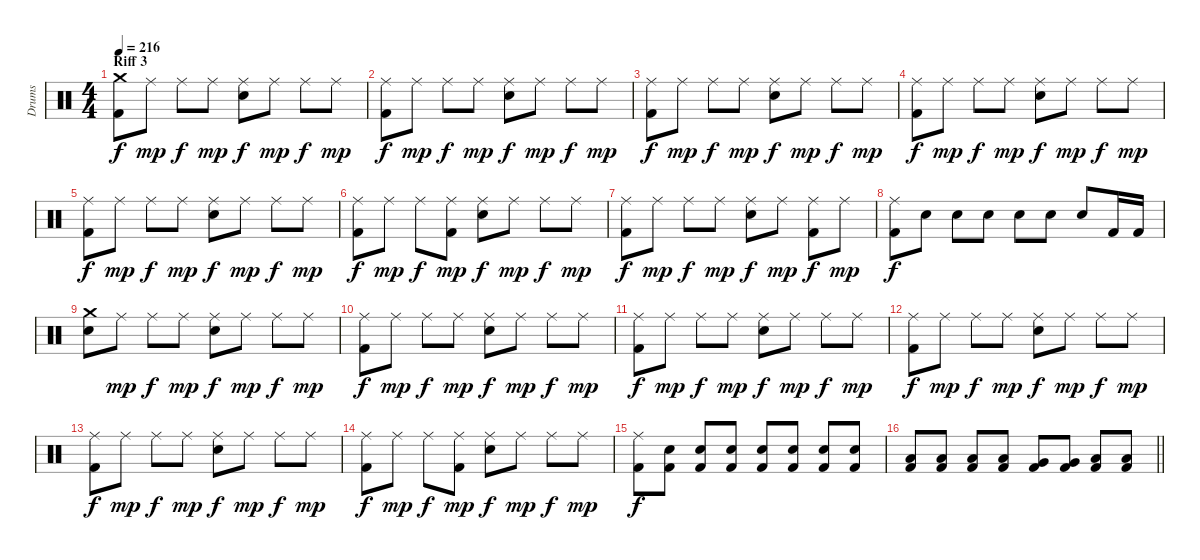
\track ("Drums" "Drums") {instrument percussion}
\staff {score}
\articulation defaults
\ts (4 4)
\section ("" "Riff 3")
\tempo 216
\clef neutral
\ks c
("Kick (hit) 2" "Crash medium (hit)").8{dy f} "Ride (middle)".8{dy mp} "Ride (middle)".8{dy f} "Ride (middle)".8{dy mp} ("Ride (middle)" "Electric Snare (hit)").8{dy f} "Ride (middle)".8{dy mp} "Ride (middle)".8{dy f} "Ride (middle)".8{dy mp} |
("Kick (hit) 2" "Ride (middle)").8{dy f} "Ride (middle)".8{dy mp} "Ride (middle)".8{dy f} "Ride (middle)".8{dy mp} ("Ride (middle)" "Electric Snare (hit)").8{dy f} "Ride (middle)".8{dy mp} "Ride (middle)".8{dy f} "Ride (middle)".8{dy mp} |
("Kick (hit) 2" "Ride (middle)").8{dy f} "Ride (middle)".8{dy mp} "Ride (middle)".8{dy f} "Ride (middle)".8{dy mp} ("Ride (middle)" "Electric Snare (hit)").8{dy f} "Ride (middle)".8{dy mp} "Ride (middle)".8{dy f} "Ride (middle)".8{dy mp} |
("Kick (hit) 2" "Ride (middle)").8{dy f} "Ride (middle)".8{dy mp} "Ride (middle)".8{dy f} "Ride (middle)".8{dy mp} ("Ride (middle)" "Electric Snare (hit)").8{dy f} "Ride (middle)".8{dy mp} "Ride (middle)".8{dy f} "Ride (middle)".8{dy mp} |
("Kick (hit) 2" "Ride (middle)").8{dy f} "Ride (middle)".8{dy mp} "Ride (middle)".8{dy f} "Ride (middle)".8{dy mp} ("Ride (middle)" "Electric Snare (hit)").8{dy f} "Ride (middle)".8{dy mp} "Ride (middle)".8{dy f} "Ride (middle)".8{dy mp} |
("Kick (hit) 2" "Ride (middle)").8{dy f} "Ride (middle)".8{dy mp} "Ride (middle)".8{dy f} ("Ride (middle)" "Kick (hit) 2").8{dy mp} ("Ride (middle)" "Electric Snare (hit)").8{dy f} "Ride (middle)".8{dy mp} "Ride (middle)".8{dy f} "Ride (middle)".8{dy mp} |
("Kick (hit) 2" "Ride (middle)").8{dy f} "Ride (middle)".8{dy mp} "Ride (middle)".8{dy f} "Ride (middle)".8{dy mp} ("Ride (middle)" "Electric Snare (hit)").8{dy f} "Ride (middle)".8{dy mp} ("Ride (middle)" "Kick (hit) 2").8{dy f} "Ride (middle)".8{dy mp} |
("Ride (middle)" "Kick (hit) 2").8{dy f} "Electric Snare (hit)".8 "Electric Snare (hit)".8 "Electric Snare (hit)".8 "Electric Snare (hit)".8 "Electric Snare (hit)".8 "Electric Snare (hit)".8 "Kick (hit) 2".16 "Kick (hit) 2".16 |
("Electric Snare (hit)" "Crash medium (hit)").8 "Ride (middle)".8{dy mp} "Ride (middle)".8{dy f} "Ride (middle)".8{dy mp} ("Ride (middle)" "Electric Snare (hit)").8{dy f} "Ride (middle)".8{dy mp} "Ride (middle)".8{dy f} "Ride (middle)".8{dy mp} |
("Kick (hit) 2" "Ride (middle)").8{dy f} "Ride (middle)".8{dy mp} "Ride (middle)".8{dy f} "Ride (middle)".8{dy mp} ("Ride (middle)" "Electric Snare (hit)").8{dy f} "Ride (middle)".8{dy mp} "Ride (middle)".8{dy f} "Ride (middle)".8{dy mp} |
("Kick (hit) 2" "Ride (middle)").8{dy f} "Ride (middle)".8{dy mp} "Ride (middle)".8{dy f} "Ride (middle)".8{dy mp} ("Ride (middle)" "Electric Snare (hit)").8{dy f} "Ride (middle)".8{dy mp} "Ride (middle)".8{dy f} "Ride (middle)".8{dy mp} |
("Kick (hit) 2" "Ride (middle)").8{dy f} "Ride (middle)".8{dy mp} "Ride (middle)".8{dy f} "Ride (middle)".8{dy mp} ("Ride (middle)" "Electric Snare (hit)").8{dy f} "Ride (middle)".8{dy mp} "Ride (middle)".8{dy f} "Ride (middle)".8{dy mp} |
("Kick (hit) 2" "Ride (middle)").8{dy f} "Ride (middle)".8{dy mp} "Ride (middle)".8{dy f} "Ride (middle)".8{dy mp} ("Ride (middle)" "Electric Snare (hit)").8{dy f} "Ride (middle)".8{dy mp} "Ride (middle)".8{dy f} "Ride (middle)".8{dy mp} |
("Kick (hit) 2" "Ride (middle)").8{dy f} "Ride (middle)".8{dy mp} "Ride (middle)".8{dy f} ("Ride (middle)" "Kick (hit) 2").8{dy mp} ("Ride (middle)" "Electric Snare (hit)").8{dy f} "Ride (middle)".8{dy mp} "Ride (middle)".8{dy f} "Ride (middle)".8{dy mp} |
("Kick (hit) 2" "Ride (middle)").8{dy f} ("Kick (hit) 2" "Electric Snare (hit)").8 ("Kick (hit) 2" "Electric Snare (hit)").8 ("Kick (hit) 2" "Electric Snare (hit)").8 ("Kick (hit) 2" "Electric Snare (hit)").8 ("Kick (hit) 2" "Electric Snare (hit)").8 ("Kick (hit) 2" "Electric Snare (hit)").8 ("Kick (hit) 2" "Electric Snare (hit)").8 |
\barLineRight lightlight
("Low Tom (hit)" "Kick (hit) 2").8 ("Low Tom (hit)" "Kick (hit) 2").8 ("Low Tom (hit)" "Kick (hit) 2").8 ("Low Tom (hit)" "Kick (hit) 2").8 ("Very Low Tom (hit)" "Kick (hit) 2").8 ("Very Low Tom (hit)" "Kick (hit) 2").8 ("Low Floor Tom (hit)" "Kick (hit) 2").8 ("Low Floor Tom (hit)" "Kick (hit) 2").8
